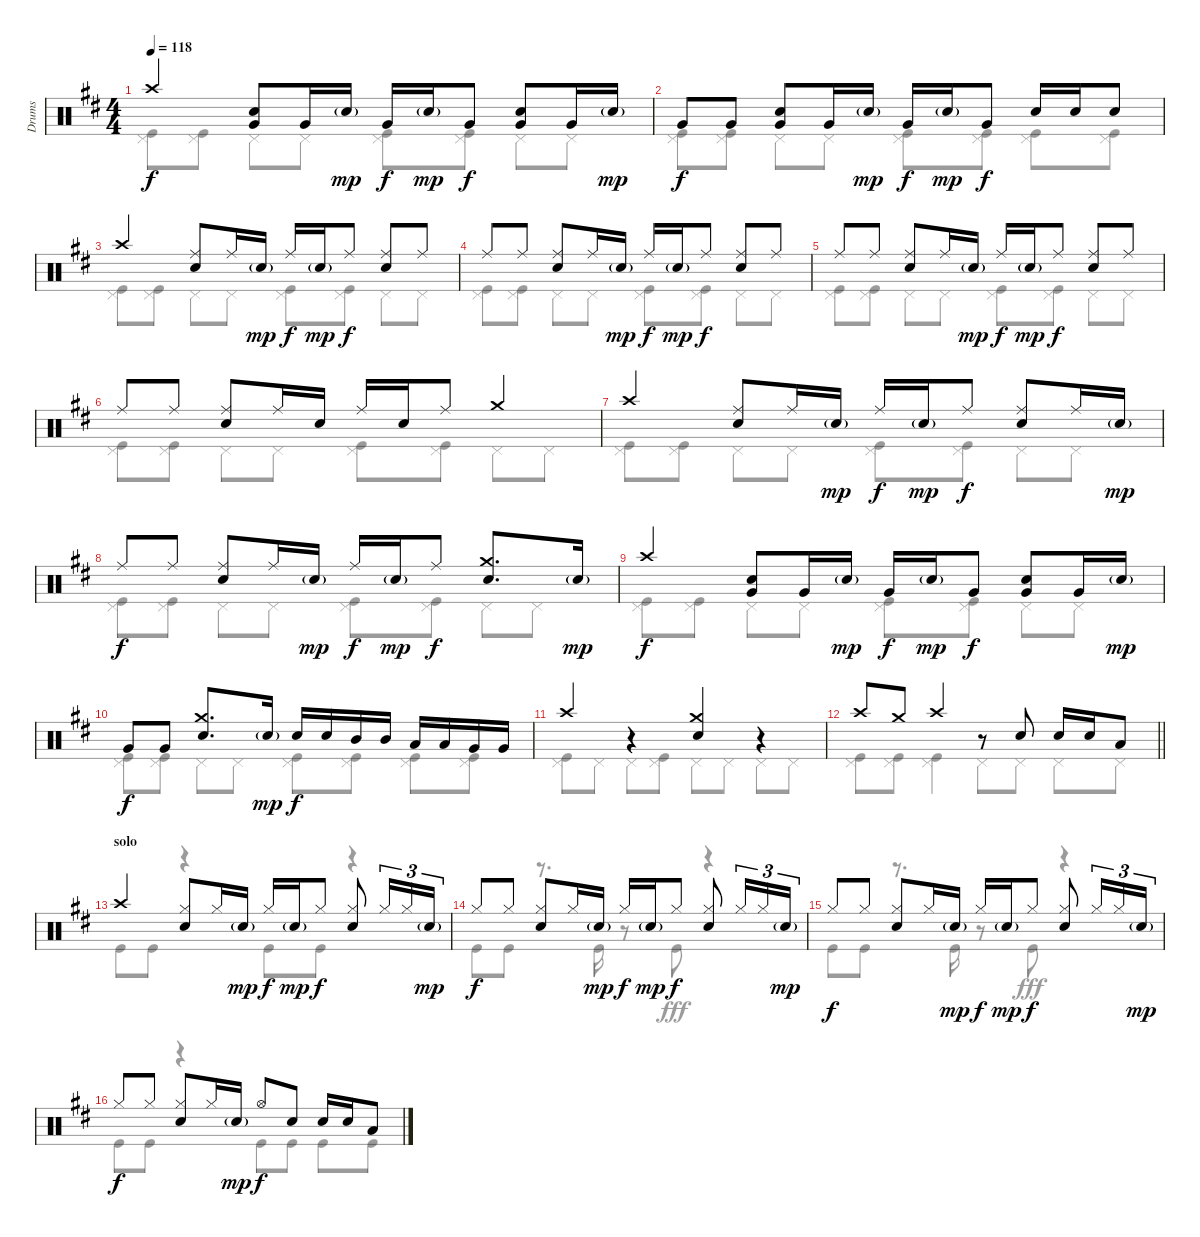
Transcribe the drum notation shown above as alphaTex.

\track ("Drums" "Drums") {instrument percussion}
\staff {score}
\articulation defaults
\voice
\ts (4 4)
\tempo 118
\clef neutral
\ks d "Crash high (hit)".4{dy f}
("Very Low Tom (hit)" "Snare (hit) 2").8 "Very Low Tom (hit)".16 "Snare (hit) 2"{g}.16{dy mp} "Very Low Tom (hit)".16{dy f} "Snare (hit) 2"{g}.16{dy mp} "Very Low Tom (hit)".8{dy f} ("Very Low Tom (hit)" "Snare (hit) 2").8 "Very Low Tom (hit)".16 "Snare (hit) 2"{g}.16{dy mp} |
"Very Low Tom (hit)".8{dy f} "Very Low Tom (hit)".8 ("Very Low Tom (hit)" "Snare (hit) 2").8 "Very Low Tom (hit)".16 "Snare (hit) 2"{g}.16{dy mp} "Very Low Tom (hit)".16{dy f} "Snare (hit) 2"{g}.16{dy mp} "Very Low Tom (hit)".8{dy f} "Snare (hit) 2".16 "Snare (hit) 2".16 "Snare (hit) 2".8 |
"Crash high (hit)".4 ("Ride (middle)" "Snare (hit) 2").8 "Ride (middle)".16 "Snare (hit) 2"{g}.16{dy mp} "Ride (middle)".16{dy f} "Snare (hit) 2"{g}.16{dy mp} "Ride (middle)".8{dy f} ("Ride (middle)" "Snare (hit) 2").8 "Ride (middle)".8 |
"Ride (middle)".8 "Ride (middle)".8 ("Ride (middle)" "Snare (hit) 2").8 "Ride (middle)".16 "Snare (hit) 2"{g}.16{dy mp} "Ride (middle)".16{dy f} "Snare (hit) 2"{g}.16{dy mp} "Ride (middle)".8{dy f} ("Ride (middle)" "Snare (hit) 2").8 "Ride (middle)".8 |
"Ride (middle)".8 "Ride (middle)".8 ("Ride (middle)" "Snare (hit) 2").8 "Ride (middle)".16 "Snare (hit) 2"{g}.16{dy mp} "Ride (middle)".16{dy f} "Snare (hit) 2"{g}.16{dy mp} "Ride (middle)".8{dy f} ("Ride (middle)" "Snare (hit) 2").8 "Ride (middle)".8 |
"Ride (middle)".8 "Ride (middle)".8 ("Ride (middle)" "Snare (hit) 2").8 "Ride (middle)".16 "Snare (hit) 2".16 "Ride (middle)".16 "Snare (hit) 2".16 "Ride (middle)".8 "Crash medium (hit)".4 |
"Crash high (hit)".4 ("Ride (middle)" "Snare (hit) 2").8 "Ride (middle)".16 "Snare (hit) 2"{g}.16{dy mp} "Ride (middle)".16{dy f} "Snare (hit) 2"{g}.16{dy mp} "Ride (middle)".8{dy f} ("Ride (middle)" "Snare (hit) 2").8 "Ride (middle)".16 "Snare (hit) 2"{g}.16{dy mp} |
"Ride (middle)".8{dy f} "Ride (middle)".8 ("Ride (middle)" "Snare (hit) 2").8 "Ride (middle)".16 "Snare (hit) 2"{g}.16{dy mp} "Ride (middle)".16{dy f} "Snare (hit) 2"{g}.16{dy mp} "Ride (middle)".8{dy f} ("Crash medium (hit)" "Snare (hit) 2").8{d} "Snare (hit) 2"{g}.16{dy mp} |
"Crash high (hit)".4{dy f} ("Very Low Tom (hit)" "Snare (hit) 2").8 "Very Low Tom (hit)".16 "Snare (hit) 2"{g}.16{dy mp} "Very Low Tom (hit)".16{dy f} "Snare (hit) 2"{g}.16{dy mp} "Very Low Tom (hit)".8{dy f} ("Very Low Tom (hit)" "Snare (hit) 2").8 "Very Low Tom (hit)".16 "Snare (hit) 2"{g}.16{dy mp} |
"Very Low Tom (hit)".8{dy f} "Very Low Tom (hit)".8 ("Crash medium (hit)" "Snare (hit) 2").8{d} "Snare (hit) 2"{g}.16{dy mp} "Snare (hit) 2".16{dy f} "Snare (hit) 2".16 "Mid Tom (hit)".16 "Mid Tom (hit)".16 "Low Tom (hit)".16 "Low Tom (hit)".16 "Very Low Tom (hit)".16 "Very Low Tom (hit)".16 |
"Crash high (hit)".4 r.4 ("Crash medium (hit)" "Snare (hit) 2").4 r.4 |
\barLineRight lightlight "Crash high (hit)".8 "Crash medium (hit)".8 "Crash high (hit)".4
r.8 "Snare (hit) 2".8 "Snare (hit) 2".16 "Snare (hit) 2".16 "Low Tom (hit)".8 |
\section ("" "solo")
"Crash high (hit)".4 ("Hi-Hat (closed)" "Snare (hit) 2").8 "Hi-Hat (closed)".16 "Snare (hit) 2"{g}.16{dy mp} "Hi-Hat (closed)".16{dy f} "Snare (hit) 2"{g}.16{dy mp} "Hi-Hat (closed)".8{dy f} ("Hi-Hat (closed)" "Snare (hit) 2").8 "Hi-Hat (closed)".16{tu (3 2)} "Hi-Hat (closed)".16{tu (3 2)} "Snare (hit) 2"{g}.16{tu (3 2) dy mp} |
"Hi-Hat (closed)".8{dy f} "Hi-Hat (closed)".8 ("Hi-Hat (closed)" "Snare (hit) 2").8 "Hi-Hat (closed)".16 "Snare (hit) 2"{g}.16{dy mp} "Hi-Hat (closed)".16{dy f} "Snare (hit) 2"{g}.16{dy mp} "Hi-Hat (closed)".8{dy f} ("Hi-Hat (closed)" "Snare (hit) 2").8 "Hi-Hat (closed)".16{tu (3 2)} "Hi-Hat (closed)".16{tu (3 2)} "Snare (hit) 2"{g}.16{tu (3 2) dy mp} |
"Hi-Hat (closed)".8{dy f} "Hi-Hat (closed)".8 ("Hi-Hat (closed)" "Snare (hit) 2").8 "Hi-Hat (closed)".16 "Snare (hit) 2"{g}.16{dy mp} "Hi-Hat (closed)".16{dy f} "Snare (hit) 2"{g}.16{dy mp} "Hi-Hat (closed)".8{dy f} ("Hi-Hat (closed)" "Snare (hit) 2").8 "Hi-Hat (closed)".16{tu (3 2)} "Hi-Hat (closed)".16{tu (3 2)} "Snare (hit) 2"{g}.16{tu (3 2) dy mp} |
"Hi-Hat (closed)".8{dy f} "Hi-Hat (closed)".8 ("Hi-Hat (closed)" "Snare (hit) 2").8 "Hi-Hat (closed)".16 "Snare (hit) 2"{g}.16{dy mp} "Hi-Hat (open)".8{dy f} "Snare (hit) 2".8 "Snare (hit) 2".16 "Snare (hit) 2".16 "Low Tom (hit)".8
\voice
\clef neutral
\ottava regular
\simile none
\ks d
("Pedal Hi-Hat (hit)" "Kick (hit)").8{dy f} ("Pedal Hi-Hat (hit)" "Kick (hit)").8 "Pedal Hi-Hat (hit)".8 "Pedal Hi-Hat (hit)".8 ("Pedal Hi-Hat (hit)" "Kick (hit)").8 ("Pedal Hi-Hat (hit)" "Kick (hit)").8 "Pedal Hi-Hat (hit)".8 "Pedal Hi-Hat (hit)".8 |
("Pedal Hi-Hat (hit)" "Kick (hit)").8 ("Pedal Hi-Hat (hit)" "Kick (hit)").8 "Pedal Hi-Hat (hit)".8 "Pedal Hi-Hat (hit)".8 ("Pedal Hi-Hat (hit)" "Kick (hit)").8 ("Pedal Hi-Hat (hit)" "Kick (hit)").8 ("Pedal Hi-Hat (hit)" "Kick (hit)").8 ("Pedal Hi-Hat (hit)" "Kick (hit)").8 |
("Pedal Hi-Hat (hit)" "Kick (hit)").8 ("Pedal Hi-Hat (hit)" "Kick (hit)").8 "Pedal Hi-Hat (hit)".8 "Pedal Hi-Hat (hit)".8 ("Pedal Hi-Hat (hit)" "Kick (hit)").8 ("Pedal Hi-Hat (hit)" "Kick (hit)").8 "Pedal Hi-Hat (hit)".8 "Pedal Hi-Hat (hit)".8 |
("Pedal Hi-Hat (hit)" "Kick (hit)").8 ("Pedal Hi-Hat (hit)" "Kick (hit)").8 "Pedal Hi-Hat (hit)".8 "Pedal Hi-Hat (hit)".8 ("Pedal Hi-Hat (hit)" "Kick (hit)").8 ("Pedal Hi-Hat (hit)" "Kick (hit)").8 "Pedal Hi-Hat (hit)".8 "Pedal Hi-Hat (hit)".8 |
("Pedal Hi-Hat (hit)" "Kick (hit)").8 ("Pedal Hi-Hat (hit)" "Kick (hit)").8 "Pedal Hi-Hat (hit)".8 "Pedal Hi-Hat (hit)".8 ("Pedal Hi-Hat (hit)" "Kick (hit)").8 ("Pedal Hi-Hat (hit)" "Kick (hit)").8 "Pedal Hi-Hat (hit)".8 "Pedal Hi-Hat (hit)".8 |
("Pedal Hi-Hat (hit)" "Kick (hit)").8 ("Pedal Hi-Hat (hit)" "Kick (hit)").8 "Pedal Hi-Hat (hit)".8 "Pedal Hi-Hat (hit)".8 ("Pedal Hi-Hat (hit)" "Kick (hit)").8 ("Pedal Hi-Hat (hit)" "Kick (hit)").8 "Pedal Hi-Hat (hit)".8 "Pedal Hi-Hat (hit)".8 |
("Pedal Hi-Hat (hit)" "Kick (hit)").8 ("Pedal Hi-Hat (hit)" "Kick (hit)").8 "Pedal Hi-Hat (hit)".8 "Pedal Hi-Hat (hit)".8 ("Pedal Hi-Hat (hit)" "Kick (hit)").8 ("Pedal Hi-Hat (hit)" "Kick (hit)").8 "Pedal Hi-Hat (hit)".8 "Pedal Hi-Hat (hit)".8 |
("Pedal Hi-Hat (hit)" "Kick (hit)").8 ("Pedal Hi-Hat (hit)" "Kick (hit)").8 "Pedal Hi-Hat (hit)".8 "Pedal Hi-Hat (hit)".8 ("Pedal Hi-Hat (hit)" "Kick (hit)").8 ("Pedal Hi-Hat (hit)" "Kick (hit)").8 "Pedal Hi-Hat (hit)".8 "Pedal Hi-Hat (hit)".8 |
("Pedal Hi-Hat (hit)" "Kick (hit)").8 ("Pedal Hi-Hat (hit)" "Kick (hit)").8 "Pedal Hi-Hat (hit)".8 "Pedal Hi-Hat (hit)".8 ("Pedal Hi-Hat (hit)" "Kick (hit)").8 ("Pedal Hi-Hat (hit)" "Kick (hit)").8 "Pedal Hi-Hat (hit)".8 "Pedal Hi-Hat (hit)".8 |
("Pedal Hi-Hat (hit)" "Kick (hit)").8 ("Pedal Hi-Hat (hit)" "Kick (hit)").8 "Pedal Hi-Hat (hit)".8 "Pedal Hi-Hat (hit)".8 ("Pedal Hi-Hat (hit)" "Kick (hit)").8 ("Pedal Hi-Hat (hit)" "Kick (hit)").8 ("Pedal Hi-Hat (hit)" "Kick (hit)").8 ("Pedal Hi-Hat (hit)" "Kick (hit)").8 |
("Pedal Hi-Hat (hit)" "Kick (hit)").8 "Pedal Hi-Hat (hit)".8 "Pedal Hi-Hat (hit)".8 ("Pedal Hi-Hat (hit)" "Kick (hit)").8 "Pedal Hi-Hat (hit)".8 "Pedal Hi-Hat (hit)".8 "Pedal Hi-Hat (hit)".8 "Pedal Hi-Hat (hit)".8 |
\barLineRight lightlight
("Pedal Hi-Hat (hit)" "Kick (hit)").8 ("Pedal Hi-Hat (hit)" "Kick (hit)").8 ("Pedal Hi-Hat (hit)" "Kick (hit)").4 "Pedal Hi-Hat (hit)".8 "Pedal Hi-Hat (hit)".8 "Pedal Hi-Hat (hit)".8 "Pedal Hi-Hat (hit)".8 |
"Kick (hit)".8 "Kick (hit)".8 r.4 "Kick (hit)".8 "Kick (hit)".8 r.4 |
"Kick (hit)".8 "Kick (hit)".8 r.8{d} "Kick (hit)".16 r.8 "Kick (hit)".8{dy fff} r.4 |
"Kick (hit)".8{dy f} "Kick (hit)".8 r.8{d} "Kick (hit)".16 r.8 "Kick (hit)".8{dy fff} r.4 |
"Kick (hit)".8{dy f} "Kick (hit)".8 r.4 "Kick (hit)".8 "Kick (hit)".8 "Kick (hit)".8 "Kick (hit)".8
